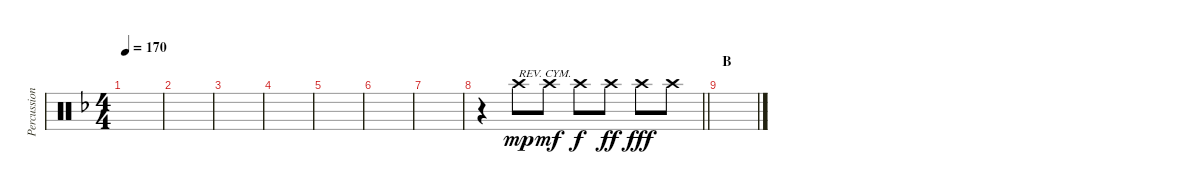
\track ("Percussion (Tainaka Ritsu)" "Percussion") {instrument percussion}
\staff {score}
\articulation defaults
\ts (4 4)
\tempo 170
\clef neutral
\ks f
|
|
|
|
|
|
|
\barLineRight lightlight
r.4{volume 0} "Crash high (hit)".8{txt "REV. CYM." dy mp volume 13} "Crash high (hit)".8{dy mf} "Crash high (hit)".8{dy f} "Crash high (hit)".8{dy ff} "Crash high (hit)".8{dy fff} "Crash high (hit)".8 |
\section ("" "B")
